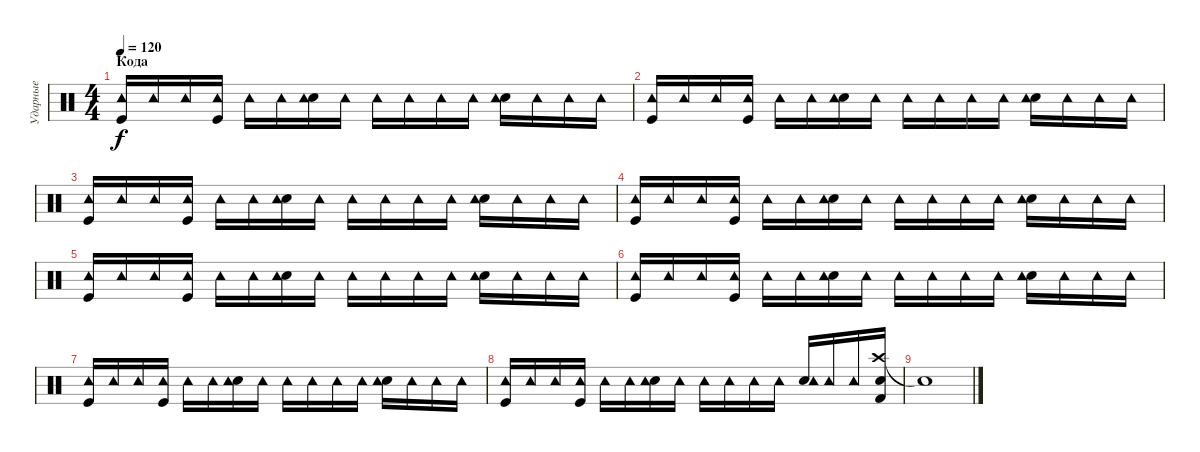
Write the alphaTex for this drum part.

\track ("Ударные" "Ударные") {instrument percussion}
\staff {score}
\articulation defaults
\ts (4 4)
\section ("" "Кода")
\tempo 120
\clef neutral
\ks c
("Kick (hit)" "Tambourine (hit)").16{dy f} "Tambourine (hit)".16 "Tambourine (hit)".16 ("Kick (hit)" "Tambourine (hit)").16 "Tambourine (hit)".16 "Tambourine (hit)".16 ("Electric Snare (hit)" "Tambourine (hit)").16 "Tambourine (hit)".16 "Tambourine (hit)".16 "Tambourine (hit)".16 "Tambourine (hit)".16 "Tambourine (hit)".16 ("Electric Snare (hit)" "Tambourine (hit)").16 "Tambourine (hit)".16 "Tambourine (hit)".16 "Tambourine (hit)".16 |
("Kick (hit)" "Tambourine (hit)").16 "Tambourine (hit)".16 "Tambourine (hit)".16 ("Kick (hit)" "Tambourine (hit)").16 "Tambourine (hit)".16 "Tambourine (hit)".16 ("Electric Snare (hit)" "Tambourine (hit)").16 "Tambourine (hit)".16 "Tambourine (hit)".16 "Tambourine (hit)".16 "Tambourine (hit)".16 "Tambourine (hit)".16 ("Electric Snare (hit)" "Tambourine (hit)").16 "Tambourine (hit)".16 "Tambourine (hit)".16 "Tambourine (hit)".16 |
("Kick (hit)" "Tambourine (hit)").16 "Tambourine (hit)".16 "Tambourine (hit)".16 ("Kick (hit)" "Tambourine (hit)").16 "Tambourine (hit)".16 "Tambourine (hit)".16 ("Electric Snare (hit)" "Tambourine (hit)").16 "Tambourine (hit)".16 "Tambourine (hit)".16 "Tambourine (hit)".16 "Tambourine (hit)".16 "Tambourine (hit)".16 ("Electric Snare (hit)" "Tambourine (hit)").16 "Tambourine (hit)".16 "Tambourine (hit)".16 "Tambourine (hit)".16 |
("Kick (hit)" "Tambourine (hit)").16 "Tambourine (hit)".16 "Tambourine (hit)".16 ("Kick (hit)" "Tambourine (hit)").16 "Tambourine (hit)".16 "Tambourine (hit)".16 ("Electric Snare (hit)" "Tambourine (hit)").16 "Tambourine (hit)".16 "Tambourine (hit)".16 "Tambourine (hit)".16 "Tambourine (hit)".16 "Tambourine (hit)".16 ("Electric Snare (hit)" "Tambourine (hit)").16 "Tambourine (hit)".16 "Tambourine (hit)".16 "Tambourine (hit)".16 |
("Kick (hit)" "Tambourine (hit)").16 "Tambourine (hit)".16 "Tambourine (hit)".16 ("Kick (hit)" "Tambourine (hit)").16 "Tambourine (hit)".16 "Tambourine (hit)".16 ("Electric Snare (hit)" "Tambourine (hit)").16 "Tambourine (hit)".16 "Tambourine (hit)".16 "Tambourine (hit)".16 "Tambourine (hit)".16 "Tambourine (hit)".16 ("Electric Snare (hit)" "Tambourine (hit)").16 "Tambourine (hit)".16 "Tambourine (hit)".16 "Tambourine (hit)".16 |
("Kick (hit)" "Tambourine (hit)").16 "Tambourine (hit)".16 "Tambourine (hit)".16 ("Kick (hit)" "Tambourine (hit)").16 "Tambourine (hit)".16 "Tambourine (hit)".16 ("Electric Snare (hit)" "Tambourine (hit)").16 "Tambourine (hit)".16 "Tambourine (hit)".16 "Tambourine (hit)".16 "Tambourine (hit)".16 "Tambourine (hit)".16 ("Electric Snare (hit)" "Tambourine (hit)").16 "Tambourine (hit)".16 "Tambourine (hit)".16 "Tambourine (hit)".16 |
("Kick (hit)" "Tambourine (hit)").16 "Tambourine (hit)".16 "Tambourine (hit)".16 ("Kick (hit)" "Tambourine (hit)").16 "Tambourine (hit)".16 "Tambourine (hit)".16 ("Electric Snare (hit)" "Tambourine (hit)").16 "Tambourine (hit)".16 "Tambourine (hit)".16 "Tambourine (hit)".16 "Tambourine (hit)".16 "Tambourine (hit)".16 ("Electric Snare (hit)" "Tambourine (hit)").16 "Tambourine (hit)".16 "Tambourine (hit)".16 "Tambourine (hit)".16 |
("Kick (hit)" "Tambourine (hit)").16 "Tambourine (hit)".16 "Tambourine (hit)".16 ("Kick (hit)" "Tambourine (hit)").16 "Tambourine (hit)".16 "Tambourine (hit)".16 ("Electric Snare (hit)" "Tambourine (hit)").16 "Tambourine (hit)".16 "Tambourine (hit)".16 "Tambourine (hit)".16 "Tambourine (hit)".16 "Tambourine (hit)".16 ("Electric Snare (hit)" "Tambourine (hit)").16 "Tambourine (hit)".16 "Tambourine (hit)".16 ("Crash high (hit)" "Kick (hit) 2" "Electric Snare (hit)").16 |
"Snare (hit)"{t}.1
